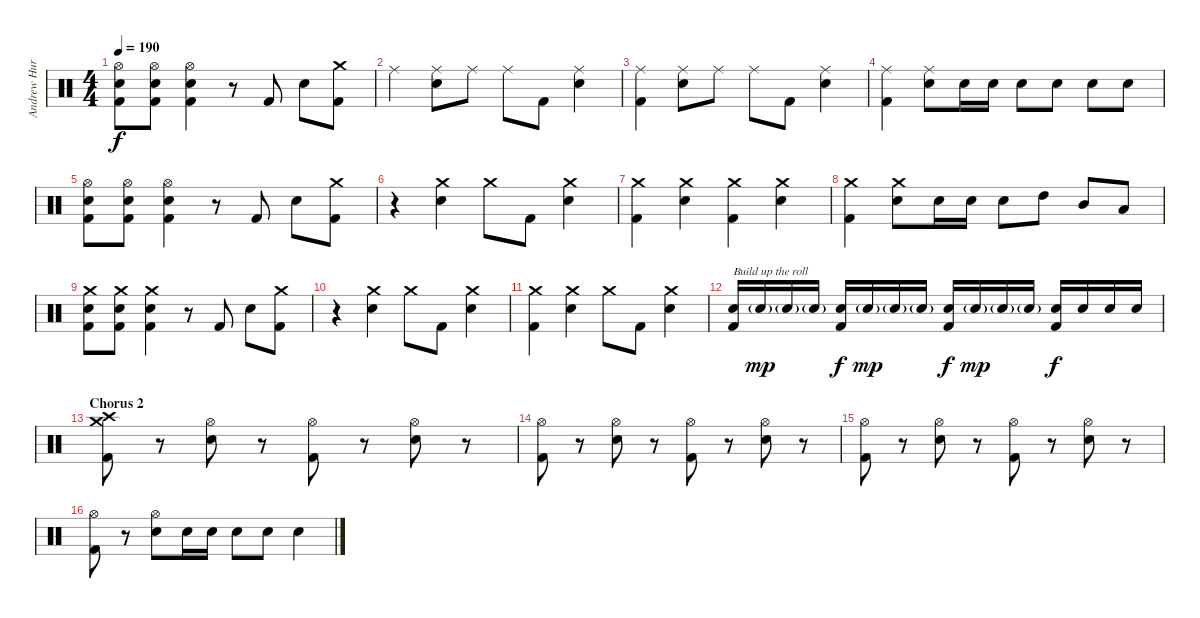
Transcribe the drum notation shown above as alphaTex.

\track ("Andrew Hurley (Drums)" "Andrew Hur") {instrument percussion}
\staff {score}
\articulation defaults
\ts (4 4)
\tempo 190
\clef neutral
\ks c
("Hi-Hat (open)" "Electric Snare (hit)" "Kick (hit) 2").8{dy f} ("Hi-Hat (open)" "Electric Snare (hit)" "Kick (hit) 2").8 ("Hi-Hat (open)" "Electric Snare (hit)" "Kick (hit) 2").4 r.8 "Kick (hit) 2".8 "Electric Snare (hit)".8 ("Crash medium (hit)" "Kick (hit) 2").8 |
"Ride (middle)".4 ("Ride (middle)" "Electric Snare (hit)").8 "Ride (middle)".8 "Ride (middle)".8 "Kick (hit) 2".8 ("Ride (middle)" "Electric Snare (hit)").4 |
("Ride (middle)" "Kick (hit) 2").4 ("Ride (middle)" "Electric Snare (hit)").8 "Ride (middle)".8 "Ride (middle)".8 "Kick (hit) 2".8 ("Ride (middle)" "Electric Snare (hit)").4 |
("Ride (middle)" "Kick (hit) 2").4 ("Ride (middle)" "Electric Snare (hit)").8 "Electric Snare (hit)".16 "Electric Snare (hit)".16 "Electric Snare (hit)".8 "Electric Snare (hit)".8 "Electric Snare (hit)".8 "Electric Snare (hit)".8 |
("Hi-Hat (open)" "Electric Snare (hit)" "Kick (hit) 2").8 ("Hi-Hat (open)" "Electric Snare (hit)" "Kick (hit) 2").8 ("Hi-Hat (open)" "Electric Snare (hit)" "Kick (hit) 2").4 r.8 "Kick (hit) 2".8 "Electric Snare (hit)".8 ("Crash medium (hit)" "Kick (hit) 2").8 |
r.4 ("Crash medium (hit)" "Electric Snare (hit)").4 "Crash medium (hit)".8 "Kick (hit) 2".8 ("Crash medium (hit)" "Electric Snare (hit)").4 |
("Crash medium (hit)" "Kick (hit) 2").4 ("Crash medium (hit)" "Electric Snare (hit)").4 ("Crash medium (hit)" "Kick (hit) 2").4 ("Crash medium (hit)" "Electric Snare (hit)").4 |
("Crash medium (hit)" "Kick (hit) 2").4 ("Crash medium (hit)" "Electric Snare (hit)").8 "Electric Snare (hit)".16 "Electric Snare (hit)".16 "Electric Snare (hit)".8 "High Tom (hit)".8 "Mid Tom (hit)".8 "Low Tom (hit)".8 |
("Crash medium (hit)" "Electric Snare (hit)" "Kick (hit) 2").8 ("Crash medium (hit)" "Electric Snare (hit)" "Kick (hit) 2").8 ("Crash medium (hit)" "Electric Snare (hit)" "Kick (hit) 2").4 r.8 "Kick (hit) 2".8 "Electric Snare (hit)".8 ("Crash medium (hit)" "Kick (hit) 2").8 |
r.4 ("Crash medium (hit)" "Electric Snare (hit)").4 "Crash medium (hit)".8 "Kick (hit) 2".8 ("Crash medium (hit)" "Electric Snare (hit)").4 |
("Crash medium (hit)" "Kick (hit) 2").4 ("Crash medium (hit)" "Electric Snare (hit)").4 "Crash medium (hit)".8 "Kick (hit) 2".8 ("Crash medium (hit)" "Electric Snare (hit)").4 |
("Electric Snare (hit)" "Kick (hit) 2").16{txt "Build up the roll"} "Electric Snare (hit)"{g}.16{dy mp} "Electric Snare (hit)"{g}.16 "Electric Snare (hit)"{g}.16 ("Electric Snare (hit)" "Kick (hit) 2").16{dy f} "Electric Snare (hit)"{g}.16{dy mp} "Electric Snare (hit)"{g}.16 "Electric Snare (hit)"{g}.16 ("Electric Snare (hit)" "Kick (hit) 2").16{dy f} "Electric Snare (hit)"{g}.16{dy mp} "Electric Snare (hit)"{g}.16 "Electric Snare (hit)"{g}.16 ("Electric Snare (hit)" "Kick (hit) 2").16{dy f} "Electric Snare (hit)".16 "Electric Snare (hit)".16 "Electric Snare (hit)".16 |
\section ("" "Chorus 2")
("Crash high (hit)" "Crash medium (hit)" "Kick (hit) 2").8 r.8 ("Hi-Hat (open)" "Electric Snare (hit)").8 r.8 ("Hi-Hat (open)" "Kick (hit) 2").8 r.8 ("Hi-Hat (open)" "Electric Snare (hit)").8 r.8 |
("Hi-Hat (open)" "Kick (hit) 2").8 r.8 ("Hi-Hat (open)" "Electric Snare (hit)").8 r.8 ("Hi-Hat (open)" "Kick (hit) 2").8 r.8 ("Hi-Hat (open)" "Electric Snare (hit)").8 r.8 |
("Hi-Hat (open)" "Kick (hit) 2").8 r.8 ("Hi-Hat (open)" "Electric Snare (hit)").8 r.8 ("Hi-Hat (open)" "Kick (hit) 2").8 r.8 ("Hi-Hat (open)" "Electric Snare (hit)").8 r.8 |
("Hi-Hat (open)" "Kick (hit) 2").8 r.8 ("Hi-Hat (open)" "Electric Snare (hit)").8 "Electric Snare (hit)".16 "Electric Snare (hit)".16 "Electric Snare (hit)".8 "Electric Snare (hit)".8 "Electric Snare (hit)".4
